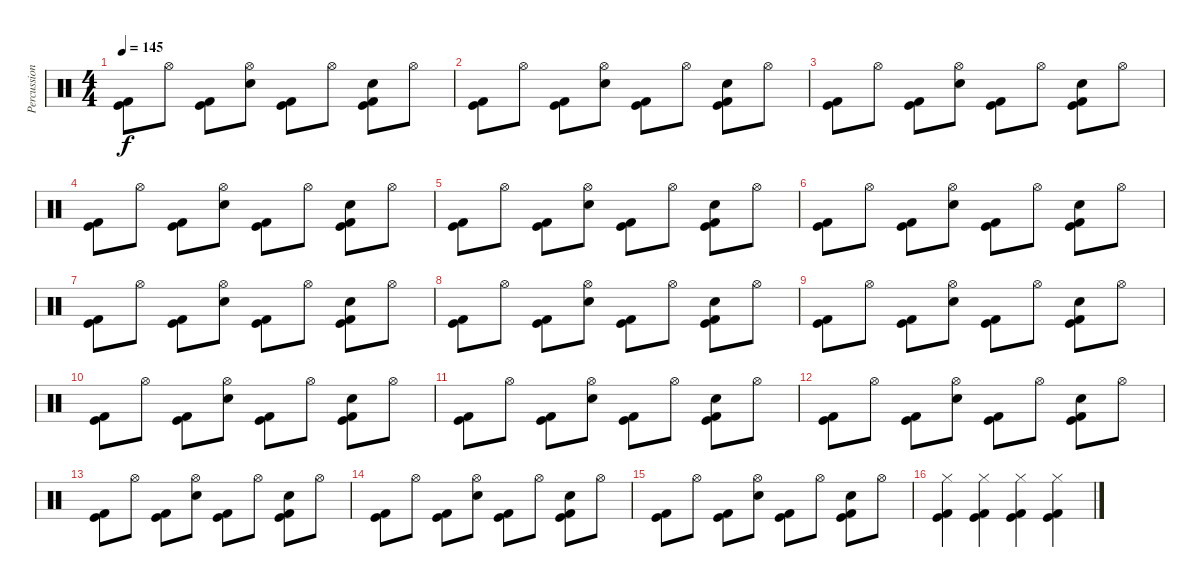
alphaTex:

\track ("Percussion" "Percussion") {instrument percussion}
\staff {score}
\articulation defaults
\ts (4 4)
\tempo 145
\clef neutral
\ks c
("Kick (hit)" "Kick (hit) 2").8{dy f} "Hi-Hat (open)".8 ("Kick (hit)" "Kick (hit) 2").8 ("Hi-Hat (open)" "Snare (hit) 2").8 ("Kick (hit)" "Kick (hit) 2").8 "Hi-Hat (open)".8 ("Electric Snare (hit)" "Kick (hit)" "Kick (hit) 2").8 "Hi-Hat (open)".8 |
("Kick (hit)" "Kick (hit) 2").8 "Hi-Hat (open)".8 ("Kick (hit)" "Kick (hit) 2").8 ("Hi-Hat (open)" "Snare (hit) 2").8 ("Kick (hit)" "Kick (hit) 2").8 "Hi-Hat (open)".8 ("Electric Snare (hit)" "Kick (hit)" "Kick (hit) 2").8 "Hi-Hat (open)".8 |
("Kick (hit)" "Kick (hit) 2").8 "Hi-Hat (open)".8 ("Kick (hit)" "Kick (hit) 2").8 ("Hi-Hat (open)" "Snare (hit) 2").8 ("Kick (hit)" "Kick (hit) 2").8 "Hi-Hat (open)".8 ("Electric Snare (hit)" "Kick (hit)" "Kick (hit) 2").8 "Hi-Hat (open)".8 |
("Kick (hit)" "Kick (hit) 2").8 "Hi-Hat (open)".8 ("Kick (hit)" "Kick (hit) 2").8 ("Hi-Hat (open)" "Snare (hit) 2").8 ("Kick (hit)" "Kick (hit) 2").8 "Hi-Hat (open)".8 ("Electric Snare (hit)" "Kick (hit)" "Kick (hit) 2").8 "Hi-Hat (open)".8 |
("Kick (hit)" "Kick (hit) 2").8 "Hi-Hat (open)".8 ("Kick (hit)" "Kick (hit) 2").8 ("Hi-Hat (open)" "Snare (hit) 2").8 ("Kick (hit)" "Kick (hit) 2").8 "Hi-Hat (open)".8 ("Electric Snare (hit)" "Kick (hit)" "Kick (hit) 2").8 "Hi-Hat (open)".8 |
("Kick (hit)" "Kick (hit) 2").8 "Hi-Hat (open)".8 ("Kick (hit)" "Kick (hit) 2").8 ("Hi-Hat (open)" "Snare (hit) 2").8 ("Kick (hit)" "Kick (hit) 2").8 "Hi-Hat (open)".8 ("Electric Snare (hit)" "Kick (hit)" "Kick (hit) 2").8 "Hi-Hat (open)".8 |
("Kick (hit)" "Kick (hit) 2").8 "Hi-Hat (open)".8 ("Kick (hit)" "Kick (hit) 2").8 ("Hi-Hat (open)" "Snare (hit) 2").8 ("Kick (hit)" "Kick (hit) 2").8 "Hi-Hat (open)".8 ("Electric Snare (hit)" "Kick (hit)" "Kick (hit) 2").8 "Hi-Hat (open)".8 |
("Kick (hit)" "Kick (hit) 2").8 "Hi-Hat (open)".8 ("Kick (hit)" "Kick (hit) 2").8 ("Hi-Hat (open)" "Snare (hit) 2").8 ("Kick (hit)" "Kick (hit) 2").8 "Hi-Hat (open)".8 ("Electric Snare (hit)" "Kick (hit)" "Kick (hit) 2").8 "Hi-Hat (open)".8 |
("Kick (hit)" "Kick (hit) 2").8 "Hi-Hat (open)".8 ("Kick (hit)" "Kick (hit) 2").8 ("Hi-Hat (open)" "Snare (hit) 2").8 ("Kick (hit)" "Kick (hit) 2").8 "Hi-Hat (open)".8 ("Electric Snare (hit)" "Kick (hit)" "Kick (hit) 2").8 "Hi-Hat (open)".8 |
("Kick (hit)" "Kick (hit) 2").8 "Hi-Hat (open)".8 ("Kick (hit)" "Kick (hit) 2").8 ("Hi-Hat (open)" "Snare (hit) 2").8 ("Kick (hit)" "Kick (hit) 2").8 "Hi-Hat (open)".8 ("Electric Snare (hit)" "Kick (hit)" "Kick (hit) 2").8 "Hi-Hat (open)".8 |
("Kick (hit)" "Kick (hit) 2").8 "Hi-Hat (open)".8 ("Kick (hit)" "Kick (hit) 2").8 ("Hi-Hat (open)" "Snare (hit) 2").8 ("Kick (hit)" "Kick (hit) 2").8 "Hi-Hat (open)".8 ("Electric Snare (hit)" "Kick (hit)" "Kick (hit) 2").8 "Hi-Hat (open)".8 |
("Kick (hit)" "Kick (hit) 2").8 "Hi-Hat (open)".8 ("Kick (hit)" "Kick (hit) 2").8 ("Hi-Hat (open)" "Snare (hit) 2").8 ("Kick (hit)" "Kick (hit) 2").8 "Hi-Hat (open)".8 ("Electric Snare (hit)" "Kick (hit)" "Kick (hit) 2").8 "Hi-Hat (open)".8 |
("Kick (hit)" "Kick (hit) 2").8 "Hi-Hat (open)".8 ("Kick (hit)" "Kick (hit) 2").8 ("Hi-Hat (open)" "Snare (hit) 2").8 ("Kick (hit)" "Kick (hit) 2").8 "Hi-Hat (open)".8 ("Electric Snare (hit)" "Kick (hit)" "Kick (hit) 2").8 "Hi-Hat (open)".8 |
("Kick (hit)" "Kick (hit) 2").8 "Hi-Hat (open)".8 ("Kick (hit)" "Kick (hit) 2").8 ("Hi-Hat (open)" "Snare (hit) 2").8 ("Kick (hit)" "Kick (hit) 2").8 "Hi-Hat (open)".8 ("Electric Snare (hit)" "Kick (hit)" "Kick (hit) 2").8 "Hi-Hat (open)".8 |
("Kick (hit)" "Kick (hit) 2").8 "Hi-Hat (open)".8 ("Kick (hit)" "Kick (hit) 2").8 ("Hi-Hat (open)" "Snare (hit) 2").8 ("Kick (hit)" "Kick (hit) 2").8 "Hi-Hat (open)".8 ("Electric Snare (hit)" "Kick (hit)" "Kick (hit) 2").8 "Hi-Hat (open)".8 |
("Hi-Hat (closed)" "Kick (hit)" "Kick (hit) 2").4 ("Hi-Hat (closed)" "Kick (hit)" "Kick (hit) 2").4 ("Hi-Hat (closed)" "Kick (hit)" "Kick (hit) 2").4 ("Hi-Hat (closed)" "Kick (hit)" "Kick (hit) 2").4
